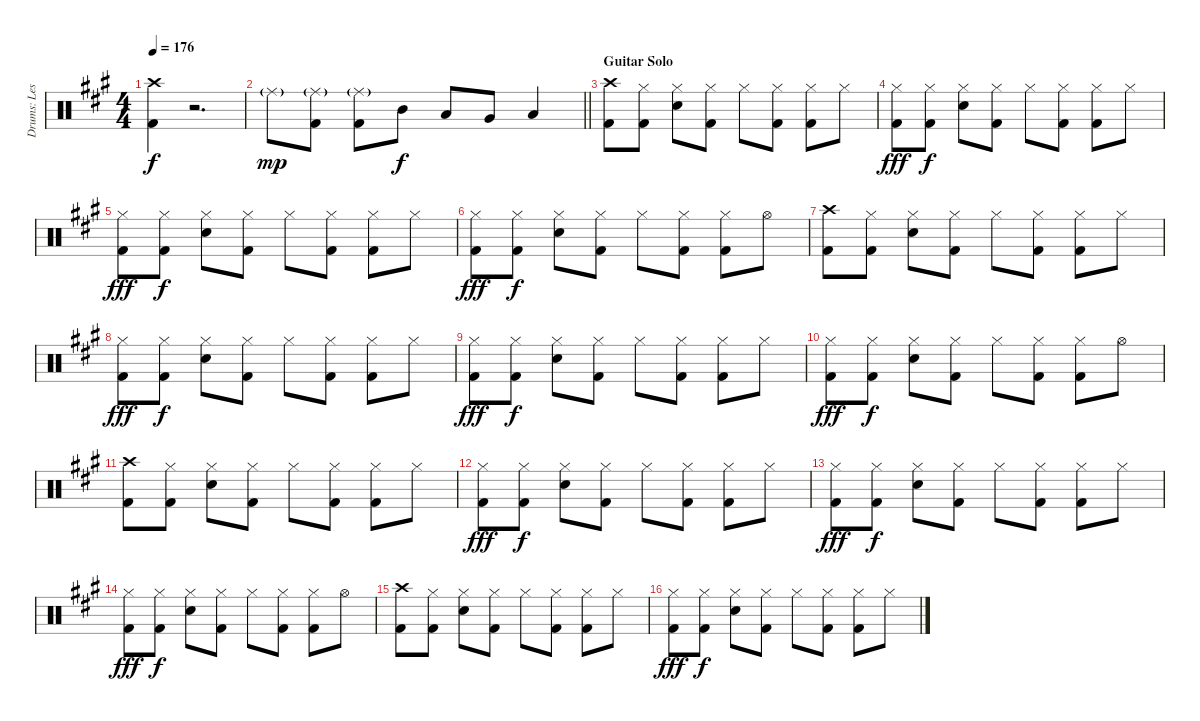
\track ("Drums: Les" "Drums: Les") {instrument percussion}
\staff {score}
\articulation defaults
\ts (4 4)
\tempo 176
\clef neutral
\ks a
("Crash high (hit)" "Kick (hit) 2").4{dy f} r.2{d} |
\barLineRight lightlight "Ride (middle)"{g}.8{dy mp}
("Ride (middle)"{g} "Kick (hit) 2").8 ("Ride (middle)"{g} "Kick (hit) 2").8 "Mid Tom (hit)".8{dy f} "Low Tom (hit)".8 "Very Low Tom (hit)".8 "Low Floor Tom (hit)".4 |
\section ("" "Guitar Solo")
("Crash high (hit)" "Kick (hit) 2").8 ("Hi-Hat (closed)" "Kick (hit) 2").8 ("Hi-Hat (closed)" "Snare (hit) 2").8 ("Hi-Hat (closed)" "Kick (hit) 2").8 "Hi-Hat (closed)".8 ("Hi-Hat (closed)" "Kick (hit) 2").8 ("Hi-Hat (closed)" "Kick (hit) 2").8 "Hi-Hat (closed)".8 |
("Hi-Hat (closed)" "Kick (hit) 2").8{dy fff} ("Hi-Hat (closed)" "Kick (hit) 2").8{dy f} ("Hi-Hat (closed)" "Snare (hit) 2").8 ("Hi-Hat (closed)" "Kick (hit) 2").8 "Hi-Hat (closed)".8 ("Hi-Hat (closed)" "Kick (hit) 2").8 ("Hi-Hat (closed)" "Kick (hit) 2").8 "Hi-Hat (closed)".8 |
("Hi-Hat (closed)" "Kick (hit) 2").8{dy fff} ("Hi-Hat (closed)" "Kick (hit) 2").8{dy f} ("Hi-Hat (closed)" "Snare (hit) 2").8 ("Hi-Hat (closed)" "Kick (hit) 2").8 "Hi-Hat (closed)".8 ("Hi-Hat (closed)" "Kick (hit) 2").8 ("Hi-Hat (closed)" "Kick (hit) 2").8 "Hi-Hat (closed)".8 |
("Hi-Hat (closed)" "Kick (hit) 2").8{dy fff} ("Hi-Hat (closed)" "Kick (hit) 2").8{dy f} ("Hi-Hat (closed)" "Snare (hit) 2").8 ("Hi-Hat (closed)" "Kick (hit) 2").8 "Hi-Hat (closed)".8 ("Hi-Hat (closed)" "Kick (hit) 2").8 ("Hi-Hat (closed)" "Kick (hit) 2").8 "Hi-Hat (open)".8 |
("Crash high (hit)" "Kick (hit) 2").8 ("Hi-Hat (closed)" "Kick (hit) 2").8 ("Hi-Hat (closed)" "Snare (hit) 2").8 ("Hi-Hat (closed)" "Kick (hit) 2").8 "Hi-Hat (closed)".8 ("Hi-Hat (closed)" "Kick (hit) 2").8 ("Hi-Hat (closed)" "Kick (hit) 2").8 "Hi-Hat (closed)".8 |
("Hi-Hat (closed)" "Kick (hit) 2").8{dy fff} ("Hi-Hat (closed)" "Kick (hit) 2").8{dy f} ("Hi-Hat (closed)" "Snare (hit) 2").8 ("Hi-Hat (closed)" "Kick (hit) 2").8 "Hi-Hat (closed)".8 ("Hi-Hat (closed)" "Kick (hit) 2").8 ("Hi-Hat (closed)" "Kick (hit) 2").8 "Hi-Hat (closed)".8 |
("Hi-Hat (closed)" "Kick (hit) 2").8{dy fff} ("Hi-Hat (closed)" "Kick (hit) 2").8{dy f} ("Hi-Hat (closed)" "Snare (hit) 2").8 ("Hi-Hat (closed)" "Kick (hit) 2").8 "Hi-Hat (closed)".8 ("Hi-Hat (closed)" "Kick (hit) 2").8 ("Hi-Hat (closed)" "Kick (hit) 2").8 "Hi-Hat (closed)".8 |
("Hi-Hat (closed)" "Kick (hit) 2").8{dy fff} ("Hi-Hat (closed)" "Kick (hit) 2").8{dy f} ("Hi-Hat (closed)" "Snare (hit) 2").8 ("Hi-Hat (closed)" "Kick (hit) 2").8 "Hi-Hat (closed)".8 ("Hi-Hat (closed)" "Kick (hit) 2").8 ("Hi-Hat (closed)" "Kick (hit) 2").8 "Hi-Hat (open)".8 |
("Crash high (hit)" "Kick (hit) 2").8 ("Hi-Hat (closed)" "Kick (hit) 2").8 ("Hi-Hat (closed)" "Snare (hit) 2").8 ("Hi-Hat (closed)" "Kick (hit) 2").8 "Hi-Hat (closed)".8 ("Hi-Hat (closed)" "Kick (hit) 2").8 ("Hi-Hat (closed)" "Kick (hit) 2").8 "Hi-Hat (closed)".8 |
("Hi-Hat (closed)" "Kick (hit) 2").8{dy fff} ("Hi-Hat (closed)" "Kick (hit) 2").8{dy f} ("Hi-Hat (closed)" "Snare (hit) 2").8 ("Hi-Hat (closed)" "Kick (hit) 2").8 "Hi-Hat (closed)".8 ("Hi-Hat (closed)" "Kick (hit) 2").8 ("Hi-Hat (closed)" "Kick (hit) 2").8 "Hi-Hat (closed)".8 |
("Hi-Hat (closed)" "Kick (hit) 2").8{dy fff} ("Hi-Hat (closed)" "Kick (hit) 2").8{dy f} ("Hi-Hat (closed)" "Snare (hit) 2").8 ("Hi-Hat (closed)" "Kick (hit) 2").8 "Hi-Hat (closed)".8 ("Hi-Hat (closed)" "Kick (hit) 2").8 ("Hi-Hat (closed)" "Kick (hit) 2").8 "Hi-Hat (closed)".8 |
("Hi-Hat (closed)" "Kick (hit) 2").8{dy fff} ("Hi-Hat (closed)" "Kick (hit) 2").8{dy f} ("Hi-Hat (closed)" "Snare (hit) 2").8 ("Hi-Hat (closed)" "Kick (hit) 2").8 "Hi-Hat (closed)".8 ("Hi-Hat (closed)" "Kick (hit) 2").8 ("Hi-Hat (closed)" "Kick (hit) 2").8 "Hi-Hat (open)".8 |
("Crash high (hit)" "Kick (hit) 2").8 ("Hi-Hat (closed)" "Kick (hit) 2").8 ("Hi-Hat (closed)" "Snare (hit) 2").8 ("Hi-Hat (closed)" "Kick (hit) 2").8 "Hi-Hat (closed)".8 ("Hi-Hat (closed)" "Kick (hit) 2").8 ("Hi-Hat (closed)" "Kick (hit) 2").8 "Hi-Hat (closed)".8 |
("Hi-Hat (closed)" "Kick (hit) 2").8{dy fff} ("Hi-Hat (closed)" "Kick (hit) 2").8{dy f} ("Hi-Hat (closed)" "Snare (hit) 2").8 ("Hi-Hat (closed)" "Kick (hit) 2").8 "Hi-Hat (closed)".8 ("Hi-Hat (closed)" "Kick (hit) 2").8 ("Hi-Hat (closed)" "Kick (hit) 2").8 "Hi-Hat (closed)".8
